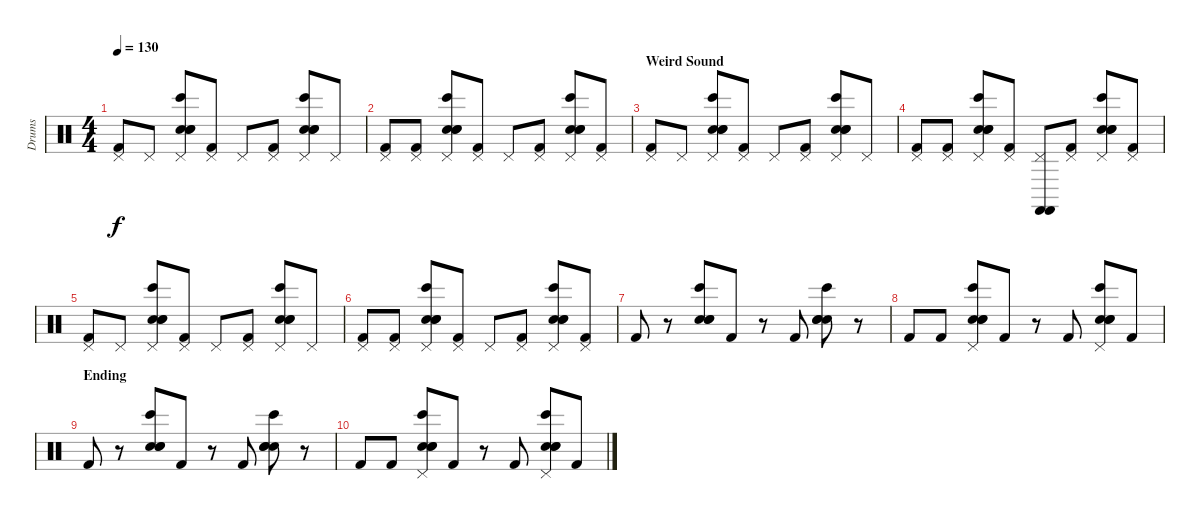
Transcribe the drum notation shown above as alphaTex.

\track ("Drums" "Drums") {instrument percussion}
\staff {score}
\articulation defaults
\ts (4 4)
\tempo 130
\clef neutral
\ks c
("Pedal Hi-Hat (hit)" "Kick (hit) 2").8{dy f} "Pedal Hi-Hat (hit)".8 ("Pedal Hi-Hat (hit)" "Snare (hit) 2" "Electric Snare (hit)" "Bongo High (hit)" "Hand Clap (hit)").8 ("Pedal Hi-Hat (hit)" "Kick (hit) 2").8 "Pedal Hi-Hat (hit)".8 ("Pedal Hi-Hat (hit)" "Kick (hit) 2").8 ("Pedal Hi-Hat (hit)" "Snare (hit) 2" "Electric Snare (hit)" "Bongo High (hit)" "Hand Clap (hit)").8 "Pedal Hi-Hat (hit)".8 |
("Pedal Hi-Hat (hit)" "Kick (hit) 2").8 ("Pedal Hi-Hat (hit)" "Kick (hit) 2").8 ("Pedal Hi-Hat (hit)" "Snare (hit) 2" "Electric Snare (hit)" "Bongo High (hit)" "Hand Clap (hit)").8 ("Pedal Hi-Hat (hit)" "Kick (hit) 2").8 "Pedal Hi-Hat (hit)".8 ("Pedal Hi-Hat (hit)" "Kick (hit) 2").8 ("Pedal Hi-Hat (hit)" "Snare (hit) 2" "Electric Snare (hit)" "Bongo High (hit)" "Hand Clap (hit)").8 ("Pedal Hi-Hat (hit)" "Kick (hit) 2").8 |
\section ("" "Weird Sound")
("Pedal Hi-Hat (hit)" "Kick (hit) 2").8 "Pedal Hi-Hat (hit)".8 ("Pedal Hi-Hat (hit)" "Snare (hit) 2" "Electric Snare (hit)" "Bongo High (hit)" "Hand Clap (hit)").8 ("Pedal Hi-Hat (hit)" "Kick (hit) 2").8 "Pedal Hi-Hat (hit)".8 ("Pedal Hi-Hat (hit)" "Kick (hit) 2").8 ("Pedal Hi-Hat (hit)" "Snare (hit) 2" "Electric Snare (hit)" "Bongo High (hit)" "Hand Clap (hit)").8 "Pedal Hi-Hat (hit)".8 |
("Pedal Hi-Hat (hit)" "Kick (hit) 2").8 ("Pedal Hi-Hat (hit)" "Kick (hit) 2").8 ("Pedal Hi-Hat (hit)" "Snare (hit) 2" "Electric Snare (hit)" "Bongo High (hit)" "Hand Clap (hit)").8 ("Pedal Hi-Hat (hit)" "Kick (hit) 2").8 ("Pedal Hi-Hat (hit)" "Castanets (hit)" "Castanets (hit)").8 ("Pedal Hi-Hat (hit)" "Kick (hit) 2").8 ("Pedal Hi-Hat (hit)" "Snare (hit) 2" "Electric Snare (hit)" "Bongo High (hit)" "Hand Clap (hit)").8 ("Pedal Hi-Hat (hit)" "Kick (hit) 2").8 |
("Pedal Hi-Hat (hit)" "Kick (hit) 2").8 "Pedal Hi-Hat (hit)".8 ("Pedal Hi-Hat (hit)" "Snare (hit) 2" "Electric Snare (hit)" "Bongo High (hit)" "Hand Clap (hit)").8 ("Pedal Hi-Hat (hit)" "Kick (hit) 2").8 "Pedal Hi-Hat (hit)".8 ("Pedal Hi-Hat (hit)" "Kick (hit) 2").8 ("Pedal Hi-Hat (hit)" "Snare (hit) 2" "Electric Snare (hit)" "Bongo High (hit)" "Hand Clap (hit)").8 "Pedal Hi-Hat (hit)".8 |
("Pedal Hi-Hat (hit)" "Kick (hit) 2").8 ("Pedal Hi-Hat (hit)" "Kick (hit) 2").8 ("Pedal Hi-Hat (hit)" "Snare (hit) 2" "Electric Snare (hit)" "Bongo High (hit)" "Hand Clap (hit)").8 ("Pedal Hi-Hat (hit)" "Kick (hit) 2").8 "Pedal Hi-Hat (hit)".8 ("Pedal Hi-Hat (hit)" "Kick (hit) 2").8 ("Pedal Hi-Hat (hit)" "Snare (hit) 2" "Electric Snare (hit)" "Bongo High (hit)" "Hand Clap (hit)").8 ("Pedal Hi-Hat (hit)" "Kick (hit) 2").8 |
"Kick (hit) 2".8 r.8 ("Snare (hit) 2" "Electric Snare (hit)" "Bongo High (hit)" "Hand Clap (hit)").8 "Kick (hit) 2".8 r.8 "Kick (hit) 2".8 ("Snare (hit) 2" "Electric Snare (hit)" "Bongo High (hit)" "Hand Clap (hit)").8 r.8 |
"Kick (hit) 2".8 "Kick (hit) 2".8 ("Pedal Hi-Hat (hit)" "Snare (hit) 2" "Electric Snare (hit)" "Bongo High (hit)" "Hand Clap (hit)").8 "Kick (hit) 2".8 r.8 "Kick (hit) 2".8 ("Pedal Hi-Hat (hit)" "Snare (hit) 2" "Electric Snare (hit)" "Bongo High (hit)" "Hand Clap (hit)").8 "Kick (hit) 2".8 |
\section ("" "Ending")
"Kick (hit) 2".8 r.8 ("Snare (hit) 2" "Electric Snare (hit)" "Bongo High (hit)" "Hand Clap (hit)").8 "Kick (hit) 2".8 r.8 "Kick (hit) 2".8 ("Snare (hit) 2" "Electric Snare (hit)" "Bongo High (hit)" "Hand Clap (hit)").8 r.8 |
"Kick (hit) 2".8 "Kick (hit) 2".8 ("Pedal Hi-Hat (hit)" "Snare (hit) 2" "Electric Snare (hit)" "Bongo High (hit)" "Hand Clap (hit)").8 "Kick (hit) 2".8 r.8 "Kick (hit) 2".8 ("Pedal Hi-Hat (hit)" "Snare (hit) 2" "Electric Snare (hit)" "Bongo High (hit)" "Hand Clap (hit)").8 "Kick (hit) 2".8
